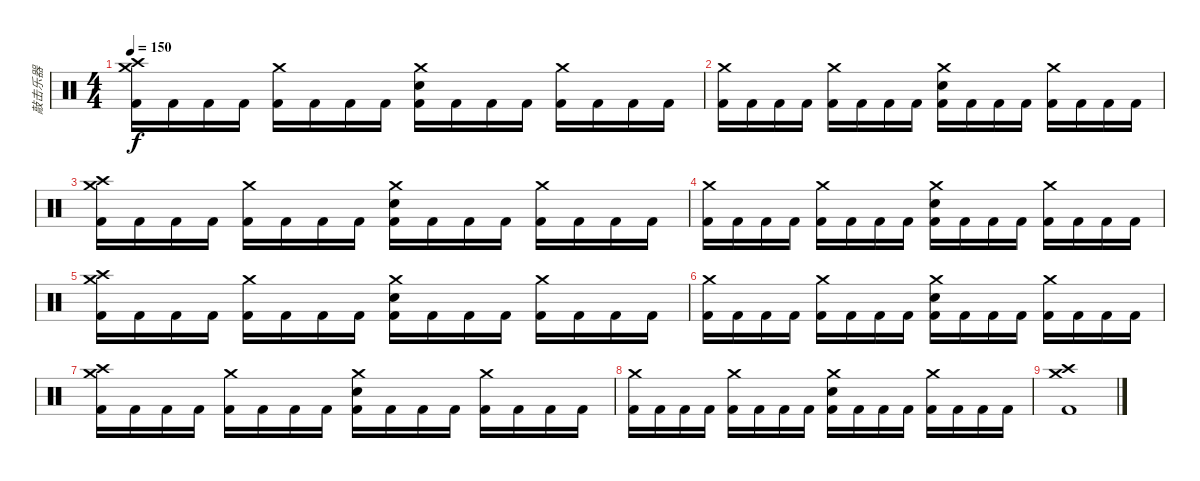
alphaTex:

\track ("敲击乐器" "敲击乐器") {instrument percussion}
\staff {score}
\articulation defaults
\ts (4 4)
\tempo 150
\clef neutral
\ks c
("Crash high (hit)" "Crash medium (hit)" "Kick (hit) 2").16{dy f} "Kick (hit) 2".16 "Kick (hit) 2".16 "Kick (hit) 2".16 ("Crash medium (hit)" "Kick (hit) 2").16 "Kick (hit) 2".16 "Kick (hit) 2".16 "Kick (hit) 2".16 ("Crash medium (hit)" "Snare (hit) 2" "Kick (hit) 2").16 "Kick (hit) 2".16 "Kick (hit) 2".16 "Kick (hit) 2".16 ("Crash medium (hit)" "Kick (hit) 2").16 "Kick (hit) 2".16 "Kick (hit) 2".16 "Kick (hit) 2".16 |
("Crash medium (hit)" "Kick (hit) 2").16 "Kick (hit) 2".16 "Kick (hit) 2".16 "Kick (hit) 2".16 ("Crash medium (hit)" "Kick (hit) 2").16 "Kick (hit) 2".16 "Kick (hit) 2".16 "Kick (hit) 2".16 ("Crash medium (hit)" "Snare (hit) 2" "Kick (hit) 2").16 "Kick (hit) 2".16 "Kick (hit) 2".16 "Kick (hit) 2".16 ("Crash medium (hit)" "Kick (hit) 2").16 "Kick (hit) 2".16 "Kick (hit) 2".16 "Kick (hit) 2".16 |
("Crash high (hit)" "Crash medium (hit)" "Kick (hit) 2").16 "Kick (hit) 2".16 "Kick (hit) 2".16 "Kick (hit) 2".16 ("Crash medium (hit)" "Kick (hit) 2").16 "Kick (hit) 2".16 "Kick (hit) 2".16 "Kick (hit) 2".16 ("Crash medium (hit)" "Snare (hit) 2" "Kick (hit) 2").16 "Kick (hit) 2".16 "Kick (hit) 2".16 "Kick (hit) 2".16 ("Crash medium (hit)" "Kick (hit) 2").16 "Kick (hit) 2".16 "Kick (hit) 2".16 "Kick (hit) 2".16 |
("Crash medium (hit)" "Kick (hit) 2").16 "Kick (hit) 2".16 "Kick (hit) 2".16 "Kick (hit) 2".16 ("Crash medium (hit)" "Kick (hit) 2").16 "Kick (hit) 2".16 "Kick (hit) 2".16 "Kick (hit) 2".16 ("Crash medium (hit)" "Snare (hit) 2" "Kick (hit) 2").16 "Kick (hit) 2".16 "Kick (hit) 2".16 "Kick (hit) 2".16 ("Crash medium (hit)" "Kick (hit) 2").16 "Kick (hit) 2".16 "Kick (hit) 2".16 "Kick (hit) 2".16 |
("Crash high (hit)" "Crash medium (hit)" "Kick (hit) 2").16 "Kick (hit) 2".16 "Kick (hit) 2".16 "Kick (hit) 2".16 ("Crash medium (hit)" "Kick (hit) 2").16 "Kick (hit) 2".16 "Kick (hit) 2".16 "Kick (hit) 2".16 ("Crash medium (hit)" "Snare (hit) 2" "Kick (hit) 2").16 "Kick (hit) 2".16 "Kick (hit) 2".16 "Kick (hit) 2".16 ("Crash medium (hit)" "Kick (hit) 2").16 "Kick (hit) 2".16 "Kick (hit) 2".16 "Kick (hit) 2".16 |
("Crash medium (hit)" "Kick (hit) 2").16 "Kick (hit) 2".16 "Kick (hit) 2".16 "Kick (hit) 2".16 ("Crash medium (hit)" "Kick (hit) 2").16 "Kick (hit) 2".16 "Kick (hit) 2".16 "Kick (hit) 2".16 ("Crash medium (hit)" "Snare (hit) 2" "Kick (hit) 2").16 "Kick (hit) 2".16 "Kick (hit) 2".16 "Kick (hit) 2".16 ("Crash medium (hit)" "Kick (hit) 2").16 "Kick (hit) 2".16 "Kick (hit) 2".16 "Kick (hit) 2".16 |
("Crash high (hit)" "Crash medium (hit)" "Kick (hit) 2").16 "Kick (hit) 2".16 "Kick (hit) 2".16 "Kick (hit) 2".16 ("Crash medium (hit)" "Kick (hit) 2").16 "Kick (hit) 2".16 "Kick (hit) 2".16 "Kick (hit) 2".16 ("Crash medium (hit)" "Snare (hit) 2" "Kick (hit) 2").16 "Kick (hit) 2".16 "Kick (hit) 2".16 "Kick (hit) 2".16 ("Crash medium (hit)" "Kick (hit) 2").16 "Kick (hit) 2".16 "Kick (hit) 2".16 "Kick (hit) 2".16 |
("Crash medium (hit)" "Kick (hit) 2").16 "Kick (hit) 2".16 "Kick (hit) 2".16 "Kick (hit) 2".16 ("Crash medium (hit)" "Kick (hit) 2").16 "Kick (hit) 2".16 "Kick (hit) 2".16 "Kick (hit) 2".16 ("Crash medium (hit)" "Snare (hit) 2" "Kick (hit) 2").16 "Kick (hit) 2".16 "Kick (hit) 2".16 "Kick (hit) 2".16 ("Crash medium (hit)" "Kick (hit) 2").16 "Kick (hit) 2".16 "Kick (hit) 2".16 "Kick (hit) 2".16 |
("Crash medium (hit)" "Crash high (hit)" "Kick (hit) 2").1
